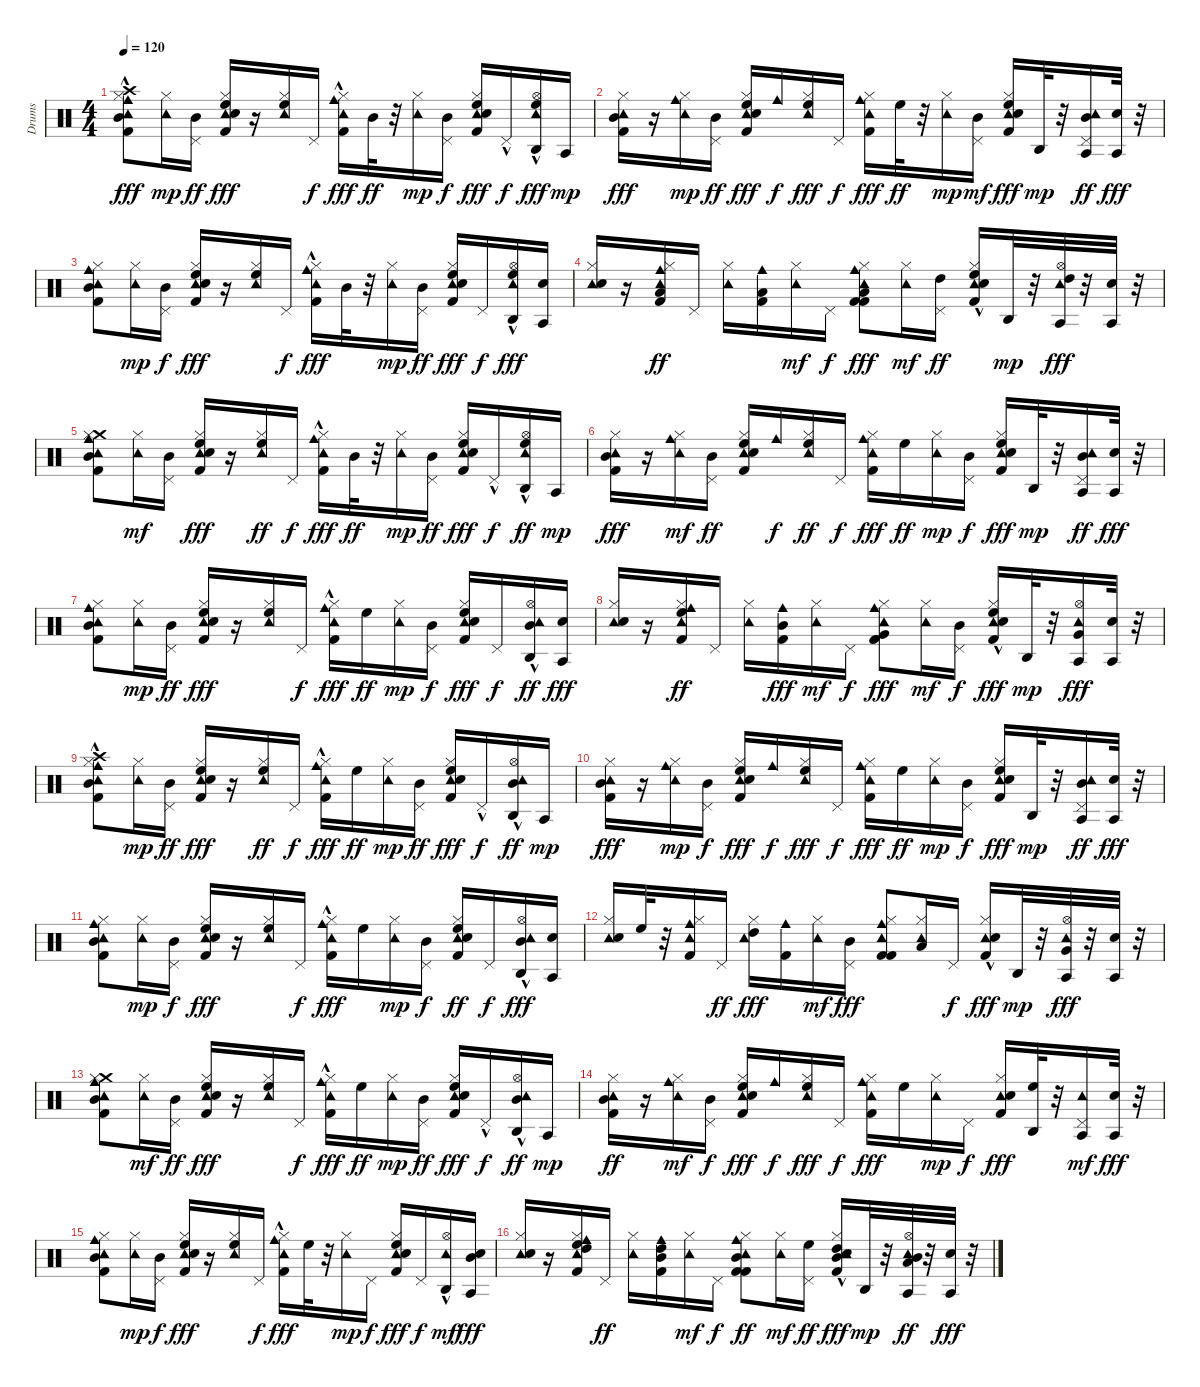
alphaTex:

\track ("Drums" "Drums") {instrument percussion}
\staff {score}
\articulation defaults
\ts (4 4)
\tempo 120
\clef neutral
\ks c
("Tambourine (hit)" "Cowbell medium (hit)" "Mid Tom (hit)" "Crash high (hit)"{hac} "Hi-Hat (closed)" "Kick (hit) 2").8{dy fff} ("Tambourine (hit)" "Hi-Hat (closed)").16{dy mp} ("Pedal Hi-Hat (hit)" "Mid Tom (hit)").16{dy ff} ("Tambourine (hit)" "High Floor Tom (hit)" "Electric Snare (hit)" "Kick (hit) 2" "Hi-Hat (closed)").16{dy fff} r.16 ("Tambourine (hit)" "High Floor Tom (hit)" "Hi-Hat (closed)").16 "Pedal Hi-Hat (hit)".16{dy f} ("Tambourine (hit)" "Cowbell medium (hit)"{hac} "Kick (hit) 2" "Hi-Hat (closed)").16{dy fff} "Mid Tom (hit)".32{dy ff} r.32 ("Tambourine (hit)" "Hi-Hat (closed)").16{dy mp} ("Pedal Hi-Hat (hit)" "Mid Tom (hit)").16{dy f} ("Tambourine (hit)" "High Floor Tom (hit)" "Kick (hit) 2" "Electric Snare (hit)" "Hi-Hat (closed)").16{dy fff} "Pedal Hi-Hat (hit)"{hac}.16{dy f} ("Agogo high (hit)" "Tambourine (hit)" "High Floor Tom (hit)" "Hi-Hat (open)"{hac}).16{dy fff} "Agogo tow (hit)".16{dy mp} |
("Tambourine (hit)" "Mid Tom (hit)" "Kick (hit) 2" "Hi-Hat (closed)").16{dy fff} r.16 ("Cowbell medium (hit)" "Tambourine (hit)" "Hi-Hat (closed)").16{dy mp} ("Pedal Hi-Hat (hit)" "Mid Tom (hit)").16{dy ff} ("Tambourine (hit)" "Hi-Hat (closed)" "Kick (hit) 2" "Electric Snare (hit)" "High Floor Tom (hit)").16{dy fff} "Cowbell medium (hit)".16{dy f} ("Tambourine (hit)" "Hi-Hat (closed)" "High Floor Tom (hit)").16{dy fff} "Pedal Hi-Hat (hit)".16{dy f} ("Cowbell medium (hit)" "Tambourine (hit)" "Kick (hit) 2" "Hi-Hat (closed)").16{dy fff} "High Floor Tom (hit)".32{dy ff} r.32 ("Tambourine (hit)" "Hi-Hat (closed)").16{dy mp} ("Pedal Hi-Hat (hit)" "Mid Tom (hit)").16{dy mf} ("Tambourine (hit)" "Electric Snare (hit)" "Kick (hit) 2" "Hi-Hat (closed)" "High Floor Tom (hit)").16{dy fff} "Agogo high (hit)".32{dy mp} r.32 ("Agogo tow (hit)" "Tambourine (hit)" "Pedal Hi-Hat (hit)" "Mid Tom (hit)").16{dy ff} ("Agogo tow (hit)" "Electric Snare (hit)").32{dy fff} r.32 |
("Cowbell medium (hit)" "Tambourine (hit)" "Kick (hit) 2" "Hi-Hat (closed)" "Mid Tom (hit)").8 ("Tambourine (hit)" "Hi-Hat (closed)").16{dy mp} ("Mid Tom (hit)" "Pedal Hi-Hat (hit)").16{dy f} ("Tambourine (hit)" "High Floor Tom (hit)" "Electric Snare (hit)" "Kick (hit) 2" "Hi-Hat (closed)").16{dy fff} r.16 ("Tambourine (hit)" "Hi-Hat (closed)" "High Floor Tom (hit)").16 "Pedal Hi-Hat (hit)".16{dy f} ("Cowbell medium (hit)"{hac} "Tambourine (hit)" "Hi-Hat (closed)" "Kick (hit) 2").16{dy fff} "Mid Tom (hit)".32 r.32 ("Tambourine (hit)" "Hi-Hat (closed)").16{dy mp} ("Pedal Hi-Hat (hit)" "Mid Tom (hit)").16{dy ff} ("Tambourine (hit)" "Kick (hit) 2" "Electric Snare (hit)" "Hi-Hat (closed)" "High Floor Tom (hit)").16{dy fff} "Pedal Hi-Hat (hit)".16{dy f} ("Agogo high (hit)" "Tambourine (hit)" "Hi-Hat (open)"{hac} "High Floor Tom (hit)").16{dy fff} ("Agogo tow (hit)" "Electric Snare (hit)").16 |
("Tambourine (hit)" "Electric Snare (hit)" "Hi-Hat (closed)").16 r.16 ("Tambourine (hit)" "Cowbell medium (hit)" "Hi-Hat (closed)" "Kick (hit) 2" "Low Tom (hit)").16{dy ff} "Pedal Hi-Hat (hit)".16 ("Tambourine (hit)" "Hi-Hat (closed)").16 ("Cowbell medium (hit)" "Kick (hit) 2" "Low Tom (hit)").16 ("Tambourine (hit)" "Hi-Hat (closed)").16{dy mf} "Pedal Hi-Hat (hit)".16{dy f} ("Tambourine (hit)" "Cowbell medium (hit)" "Kick (hit) 2" "Hi-Hat (closed)" "Kick (hit) 2" "Low Tom (hit)").8{dy fff} ("Tambourine (hit)" "Hi-Hat (closed)").16{dy mf} ("Pedal Hi-Hat (hit)" "High Tom (hit)").16{dy ff} ("Tambourine (hit)" "Hi-Hat (closed)" "Kick (hit) 2"{hac} "Electric Snare (hit)" "High Floor Tom (hit)").16 "Agogo high (hit)".32{dy mp} r.32 ("Agogo tow (hit)" "Tambourine (hit)" "Hi-Hat (open)" "High Tom (hit)").32{dy fff} r.32 ("Agogo tow (hit)" "Electric Snare (hit)").32 r.32 |
("Tambourine (hit)" "Cowbell medium (hit)" "Mid Tom (hit)" "Crash medium (hit)" "Hi-Hat (closed)" "Kick (hit) 2").8 ("Tambourine (hit)" "Hi-Hat (closed)").16{dy mf} ("Mid Tom (hit)" "Pedal Hi-Hat (hit)").16 ("Tambourine (hit)" "High Floor Tom (hit)" "Electric Snare (hit)" "Kick (hit) 2" "Hi-Hat (closed)").16{dy fff} r.16 ("Tambourine (hit)" "High Floor Tom (hit)" "Hi-Hat (closed)").16{dy ff} "Pedal Hi-Hat (hit)".16{dy f} ("Tambourine (hit)" "Cowbell medium (hit)"{hac} "Kick (hit) 2" "Hi-Hat (closed)").16{dy fff} "Mid Tom (hit)".32{dy ff} r.32 ("Tambourine (hit)" "Hi-Hat (closed)").16{dy mp} ("Mid Tom (hit)" "Pedal Hi-Hat (hit)").16{dy ff} ("Tambourine (hit)" "High Floor Tom (hit)" "Kick (hit) 2" "Electric Snare (hit)" "Hi-Hat (closed)").16{dy fff} "Pedal Hi-Hat (hit)"{hac}.16{dy f} ("Agogo high (hit)" "Tambourine (hit)" "Hi-Hat (open)"{hac} "High Floor Tom (hit)").16{dy ff} "Agogo tow (hit)".16{dy mp} |
("Tambourine (hit)" "Mid Tom (hit)" "Kick (hit) 2" "Hi-Hat (closed)").16{dy fff} r.16 ("Cowbell medium (hit)" "Tambourine (hit)" "Hi-Hat (closed)").16{dy mf} ("Pedal Hi-Hat (hit)" "Mid Tom (hit)").16{dy ff} ("Tambourine (hit)" "Hi-Hat (closed)" "Kick (hit) 2" "Electric Snare (hit)" "High Floor Tom (hit)").16 "Cowbell medium (hit)".16{dy f} ("Tambourine (hit)" "Hi-Hat (closed)" "High Floor Tom (hit)").16{dy ff} "Pedal Hi-Hat (hit)".16{dy f} ("Cowbell medium (hit)" "Tambourine (hit)" "Kick (hit) 2" "Hi-Hat (closed)").16{dy fff} "High Floor Tom (hit)".16{dy ff} ("Tambourine (hit)" "Hi-Hat (closed)").16{dy mp} ("Pedal Hi-Hat (hit)" "Mid Tom (hit)").16{dy f} ("Tambourine (hit)" "High Floor Tom (hit)" "Electric Snare (hit)" "Kick (hit) 2" "Hi-Hat (closed)").16{dy fff} "Agogo high (hit)".32{dy mp} r.32 ("Agogo tow (hit)" "Tambourine (hit)" "Mid Tom (hit)" "Pedal Hi-Hat (hit)").16{dy ff} ("Agogo tow (hit)" "Electric Snare (hit)").32{dy fff} r.32 |
("Tambourine (hit)" "Cowbell medium (hit)" "Mid Tom (hit)" "Kick (hit) 2" "Hi-Hat (closed)").8 ("Tambourine (hit)" "Hi-Hat (closed)").16{dy mp} ("Mid Tom (hit)" "Pedal Hi-Hat (hit)").16{dy ff} ("Tambourine (hit)" "High Floor Tom (hit)" "Electric Snare (hit)" "Kick (hit) 2" "Hi-Hat (closed)").16{dy fff} r.16 ("Tambourine (hit)" "High Floor Tom (hit)" "Hi-Hat (closed)").16 "Pedal Hi-Hat (hit)".16{dy f} ("Tambourine (hit)" "Cowbell medium (hit)"{hac} "Hi-Hat (closed)" "Kick (hit) 2").16{dy fff} "High Floor Tom (hit)".16{dy ff} ("Tambourine (hit)" "Hi-Hat (closed)").16{dy mp} ("Pedal Hi-Hat (hit)" "Mid Tom (hit)").16{dy f} ("Tambourine (hit)" "Kick (hit) 2" "Electric Snare (hit)" "Hi-Hat (closed)" "High Floor Tom (hit)").16{dy fff} "Pedal Hi-Hat (hit)".16{dy f} ("Agogo high (hit)" "Tambourine (hit)" "Hi-Hat (open)"{hac} "Mid Tom (hit)").16{dy ff} ("Agogo tow (hit)" "Electric Snare (hit)").16{dy fff} |
("Tambourine (hit)" "Electric Snare (hit)" "Hi-Hat (closed)").16 r.16 ("Tambourine (hit)" "Cowbell medium (hit)" "Hi-Hat (closed)" "Kick (hit) 2" "High Floor Tom (hit)").16{dy ff} "Pedal Hi-Hat (hit)".16 ("Tambourine (hit)" "Hi-Hat (closed)").16 ("Cowbell medium (hit)" "Kick (hit) 2" "Mid Tom (hit)").16{dy fff} ("Tambourine (hit)" "Hi-Hat (closed)").16{dy mf} "Pedal Hi-Hat (hit)".16{dy f} ("Tambourine (hit)" "Cowbell medium (hit)" "Kick (hit) 2" "Hi-Hat (closed)" "Kick (hit) 2" "Very Low Tom (hit)").8{dy fff} ("Tambourine (hit)" "Hi-Hat (closed)").16{dy mf} ("Mid Tom (hit)" "Pedal Hi-Hat (hit)").16{dy f} ("Tambourine (hit)" "High Floor Tom (hit)" "Hi-Hat (closed)" "Kick (hit) 2"{hac} "Electric Snare (hit)").16{dy fff} "Agogo high (hit)".32{dy mp} r.32 ("Agogo tow (hit)" "Tambourine (hit)" "Very Low Tom (hit)" "Hi-Hat (open)").16{dy fff} ("Agogo tow (hit)" "Electric Snare (hit)").32 r.32 |
("Tambourine (hit)" "Cowbell medium (hit)" "Mid Tom (hit)" "Crash high (hit)"{hac} "Hi-Hat (closed)" "Kick (hit) 2").8 ("Tambourine (hit)" "Hi-Hat (closed)").16{dy mp} ("Pedal Hi-Hat (hit)" "Mid Tom (hit)").16{dy ff} ("Tambourine (hit)" "High Floor Tom (hit)" "Electric Snare (hit)" "Kick (hit) 2" "Hi-Hat (closed)").16{dy fff} r.16 ("Tambourine (hit)" "High Floor Tom (hit)" "Hi-Hat (closed)").16{dy ff} "Pedal Hi-Hat (hit)".16{dy f} ("Tambourine (hit)" "Cowbell medium (hit)"{hac} "Kick (hit) 2" "Hi-Hat (closed)").16{dy fff} "High Floor Tom (hit)".16{dy ff} ("Tambourine (hit)" "Hi-Hat (closed)").16{dy mp} ("Pedal Hi-Hat (hit)" "Mid Tom (hit)").16{dy ff} ("Tambourine (hit)" "Kick (hit) 2" "Electric Snare (hit)" "Hi-Hat (closed)" "High Floor Tom (hit)").16{dy fff} "Pedal Hi-Hat (hit)"{hac}.16{dy f} ("Agogo high (hit)" "Tambourine (hit)" "Hi-Hat (open)"{hac} "Mid Tom (hit)").16{dy ff} "Agogo tow (hit)".16{dy mp} |
("Tambourine (hit)" "Mid Tom (hit)" "Kick (hit) 2" "Hi-Hat (closed)").16{dy fff} r.16 ("Cowbell medium (hit)" "Tambourine (hit)" "Hi-Hat (closed)").16{dy mp} ("Mid Tom (hit)" "Pedal Hi-Hat (hit)").16{dy f} ("Tambourine (hit)" "High Floor Tom (hit)" "Hi-Hat (closed)" "Kick (hit) 2" "Electric Snare (hit)").16{dy fff} "Cowbell medium (hit)".16{dy f} ("Tambourine (hit)" "Hi-Hat (closed)" "High Floor Tom (hit)").16{dy fff} "Pedal Hi-Hat (hit)".16{dy f} ("Cowbell medium (hit)" "Tambourine (hit)" "Kick (hit) 2" "Hi-Hat (closed)").16{dy fff} "High Floor Tom (hit)".16{dy ff} ("Tambourine (hit)" "Hi-Hat (closed)").16{dy mp} ("Pedal Hi-Hat (hit)" "Mid Tom (hit)").16{dy f} ("Tambourine (hit)" "Electric Snare (hit)" "Kick (hit) 2" "Hi-Hat (closed)" "High Floor Tom (hit)").16{dy fff} "Agogo high (hit)".32{dy mp} r.32 ("Agogo tow (hit)" "Tambourine (hit)" "Pedal Hi-Hat (hit)" "Mid Tom (hit)").16{dy ff} ("Agogo tow (hit)" "Electric Snare (hit)").32{dy fff} r.32 |
("Cowbell medium (hit)" "Tambourine (hit)" "Kick (hit) 2" "Hi-Hat (closed)" "Mid Tom (hit)").8 ("Tambourine (hit)" "Hi-Hat (closed)").16{dy mp} ("Mid Tom (hit)" "Pedal Hi-Hat (hit)").16{dy f} ("Tambourine (hit)" "High Floor Tom (hit)" "Electric Snare (hit)" "Kick (hit) 2" "Hi-Hat (closed)").16{dy fff} r.16 ("Tambourine (hit)" "Hi-Hat (closed)" "High Floor Tom (hit)").16 "Pedal Hi-Hat (hit)".16{dy f} ("Cowbell medium (hit)"{hac} "Tambourine (hit)" "Hi-Hat (closed)" "Kick (hit) 2").16{dy fff} "High Floor Tom (hit)".16 ("Tambourine (hit)" "Hi-Hat (closed)").16{dy mp} ("Pedal Hi-Hat (hit)" "Mid Tom (hit)").16{dy f} ("Tambourine (hit)" "Kick (hit) 2" "Electric Snare (hit)" "Hi-Hat (closed)" "High Floor Tom (hit)").16{dy ff} "Pedal Hi-Hat (hit)".16{dy f} ("Agogo high (hit)" "Tambourine (hit)" "Hi-Hat (open)"{hac} "Mid Tom (hit)"{hac}).16{dy fff} ("Agogo tow (hit)" "Electric Snare (hit)").16 |
("Tambourine (hit)" "Electric Snare (hit)" "Hi-Hat (closed)").16 "High Floor Tom (hit)".32 r.32 ("Tambourine (hit)" "Cowbell medium (hit)" "Hi-Hat (closed)" "Kick (hit) 2").16 "Pedal Hi-Hat (hit)".16{dy ff} ("Tambourine (hit)" "High Tom (hit)" "Hi-Hat (closed)").16{dy fff} ("Cowbell medium (hit)" "Kick (hit) 2").16 ("Tambourine (hit)" "Hi-Hat (closed)").16{dy mf} ("Mid Tom (hit)" "Pedal Hi-Hat (hit)").16{dy fff} ("Tambourine (hit)" "Cowbell medium (hit)" "Kick (hit) 2" "Hi-Hat (closed)" "Kick (hit) 2").8 ("Tambourine (hit)" "Hi-Hat (closed)" "Low Tom (hit)").16 "Pedal Hi-Hat (hit)".16{dy f} ("Tambourine (hit)" "Hi-Hat (closed)" "Kick (hit) 2"{hac} "Electric Snare (hit)").16{dy fff} "Agogo high (hit)".32{dy mp} r.32 ("Agogo tow (hit)" "Tambourine (hit)" "Very Low Tom (hit)" "Hi-Hat (open)").32{dy fff} r.32 ("Agogo tow (hit)" "Electric Snare (hit)").32 r.32 |
("Tambourine (hit)" "Cowbell medium (hit)" "Mid Tom (hit)" "Crash medium (hit)" "Hi-Hat (closed)" "Kick (hit) 2").8 ("Tambourine (hit)" "Hi-Hat (closed)").16{dy mf} ("Pedal Hi-Hat (hit)" "Mid Tom (hit)").16{dy ff} ("Tambourine (hit)" "High Floor Tom (hit)" "Electric Snare (hit)" "Kick (hit) 2" "Hi-Hat (closed)").16{dy fff} r.16 ("Tambourine (hit)" "High Floor Tom (hit)" "Hi-Hat (closed)").16 "Pedal Hi-Hat (hit)".16{dy f} ("Tambourine (hit)" "Cowbell medium (hit)"{hac} "Kick (hit) 2" "Hi-Hat (closed)").16{dy fff} "High Floor Tom (hit)".16{dy ff} ("Tambourine (hit)" "Hi-Hat (closed)").16{dy mp} ("Pedal Hi-Hat (hit)" "Mid Tom (hit)").16{dy ff} ("Tambourine (hit)" "Kick (hit) 2" "Electric Snare (hit)" "Hi-Hat (closed)" "High Floor Tom (hit)").16{dy fff} "Pedal Hi-Hat (hit)"{hac}.16{dy f} ("Agogo high (hit)" "Tambourine (hit)" "Hi-Hat (open)"{hac} "Mid Tom (hit)").16{dy ff} "Agogo tow (hit)".16{dy mp} |
("Tambourine (hit)" "Kick (hit) 2" "Hi-Hat (closed)" "Mid Tom (hit)").16{dy ff} r.16 ("Cowbell medium (hit)" "Tambourine (hit)" "Hi-Hat (closed)").16{dy mf} ("Pedal Hi-Hat (hit)" "Mid Tom (hit)").16{dy f} ("Tambourine (hit)" "Hi-Hat (closed)" "Kick (hit) 2" "Electric Snare (hit)" "High Floor Tom (hit)").16{dy fff} "Cowbell medium (hit)".16{dy f} ("Tambourine (hit)" "Hi-Hat (closed)" "High Floor Tom (hit)").16{dy fff} "Pedal Hi-Hat (hit)".16{dy f} ("Cowbell medium (hit)" "Tambourine (hit)" "Kick (hit) 2" "Hi-Hat (closed)").16{dy fff} "High Floor Tom (hit)".16 ("Tambourine (hit)" "Hi-Hat (closed)").16{dy mp} "Pedal Hi-Hat (hit)".16{dy f} ("Tambourine (hit)" "Electric Snare (hit)" "Kick (hit) 2" "Hi-Hat (closed)").16{dy fff} ("Agogo high (hit)" "High Floor Tom (hit)").32 r.32 ("Agogo tow (hit)" "Tambourine (hit)" "Pedal Hi-Hat (hit)").16{dy mf} ("Agogo tow (hit)" "Electric Snare (hit)").32{dy fff} r.32 |
("Tambourine (hit)" "Cowbell medium (hit)" "Kick (hit) 2" "Hi-Hat (closed)" "Mid Tom (hit)").8 ("Tambourine (hit)" "Hi-Hat (closed)").16{dy mp} ("Mid Tom (hit)" "Pedal Hi-Hat (hit)").16{dy f} ("Tambourine (hit)" "High Floor Tom (hit)" "Electric Snare (hit)" "Kick (hit) 2" "Hi-Hat (closed)").16{dy fff} r.16 ("Tambourine (hit)" "High Floor Tom (hit)" "Hi-Hat (closed)").16 "Pedal Hi-Hat (hit)".16{dy f} ("Tambourine (hit)" "Cowbell medium (hit)"{hac} "Hi-Hat (closed)" "Kick (hit) 2").16{dy fff} "High Floor Tom (hit)".32 r.32 ("Tambourine (hit)" "Hi-Hat (closed)").16{dy mp} "Pedal Hi-Hat (hit)".16{dy f} ("Tambourine (hit)" "High Floor Tom (hit)" "Kick (hit) 2" "Electric Snare (hit)" "Hi-Hat (closed)").16{dy fff} "Pedal Hi-Hat (hit)".16{dy f} ("Agogo high (hit)" "Tambourine (hit)" "Hi-Hat (open)"{hac}).16{dy mf} ("Agogo tow (hit)" "Electric Snare (hit)" "Mid Tom (hit)").16{dy fff} |
("Tambourine (hit)" "Electric Snare (hit)" "Hi-Hat (closed)").16 r.16 ("Tambourine (hit)" "Cowbell medium (hit)" "Hi-Hat (closed)" "Kick (hit) 2" "High Floor Tom (hit)" "High Tom (hit)").16 "Pedal Hi-Hat (hit)".16{dy ff} ("Tambourine (hit)" "Hi-Hat (closed)").16 ("Cowbell medium (hit)" "Kick (hit) 2" "High Tom (hit)" "Mid Tom (hit)").16 ("Tambourine (hit)" "Hi-Hat (closed)").16{dy mf} "Pedal Hi-Hat (hit)".16{dy f} ("Tambourine (hit)" "Cowbell medium (hit)" "Kick (hit) 2" "Hi-Hat (closed)" "Kick (hit) 2" "Mid Tom (hit)").8{dy ff} ("Tambourine (hit)" "Hi-Hat (closed)").16{dy mf} ("Pedal Hi-Hat (hit)" "High Floor Tom (hit)").16{dy ff} ("Tambourine (hit)" "High Tom (hit)" "Hi-Hat (closed)" "Kick (hit) 2"{hac} "Electric Snare (hit)" "Mid Tom (hit)").16{dy fff} "Agogo high (hit)".32{dy mp} r.32 ("Agogo tow (hit)" "Tambourine (hit)" "Hi-Hat (open)" "Mid Tom (hit)" "Low Tom (hit)").32{dy ff} r.32 ("Agogo tow (hit)" "Electric Snare (hit)").32{dy fff} r.32
